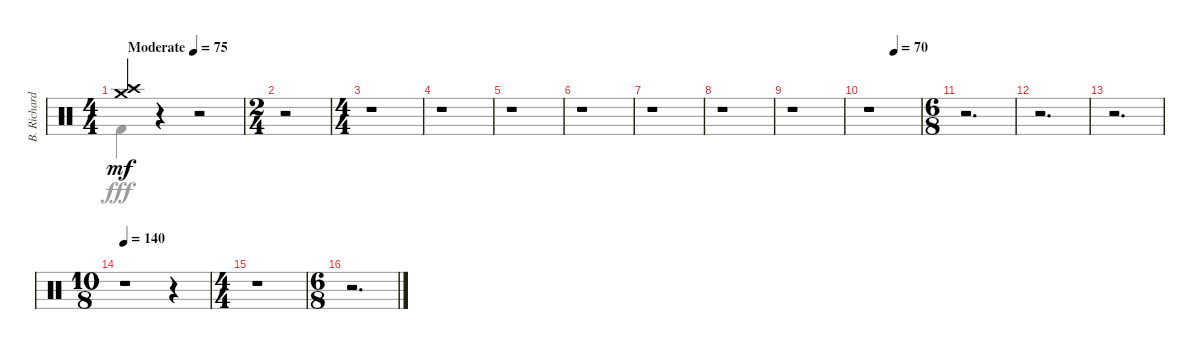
\track ("B. Richardson Drums/Percussion" "B. Richard") {instrument percussion}
\staff {score}
\articulation defaults
\voice
\ts (4 4)
\tempo (75 "Moderate")
\clef neutral
\ks c
("Crash high (hit)" "Crash medium (hit)").4{dy mf} r.4 r.2 |
\ts (2 4)
r.2 |
\ts (4 4)
r.1 |
r.1 |
r.1 |
r.1 |
r.1 |
r.1 |
r.1 |
\tempo (70 0.5)
r.1 |
\ts (6 8)
r.2{d} |
r.2{d} |
r.2{d} |
\ts (10 8)
\tempo 140
r.1 r.4 |
\ts (4 4)
r.1 |
\ts (6 8)
r.2{d}
\voice
\clef neutral
\ottava regular
\simile none
\ks c "Kick (hit) 2".4{dy fff}
r.4 r.2 |
r.2 |
r.1 |
r.1 |
r.1 |
r.1 |
r.1 |
r.1 |
r.1 |
r.1 |
r.2{d} |
r.2{d} |
r.2{d} |
r.1 r.4 |
r.1 |
r.2{d}
